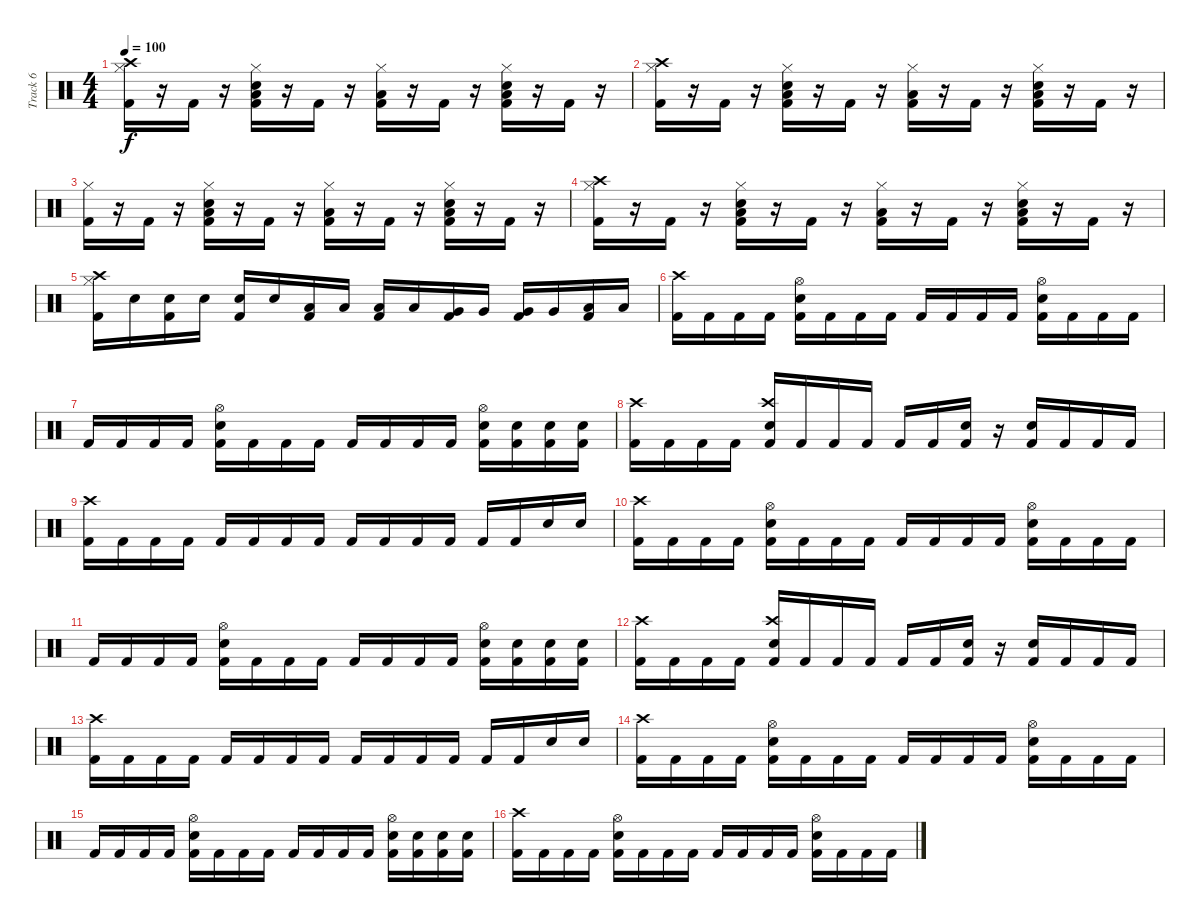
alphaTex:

\track ("Track 6" "Track 6") {instrument percussion}
\staff {score}
\articulation defaults
\ts (4 4)
\tempo 100
\clef neutral
\ks c
("Hi-Hat (closed)" "Kick (hit) 2" "Crash high (hit)").16{dy f} r.16 "Kick (hit) 2".16 r.16 ("Hi-Hat (closed)" "Kick (hit) 2" "Low Floor Tom (hit)" "Snare (hit) 2").16 r.16 "Kick (hit) 2".16 r.16 ("Hi-Hat (closed)" "Kick (hit) 2" "Low Floor Tom (hit)").16 r.16 "Kick (hit) 2".16 r.16 ("Hi-Hat (closed)" "Kick (hit) 2" "Low Floor Tom (hit)" "Snare (hit) 2").16 r.16 "Kick (hit) 2".16 r.16 |
("Hi-Hat (closed)" "Kick (hit) 2" "Crash high (hit)").16 r.16 "Kick (hit) 2".16 r.16 ("Hi-Hat (closed)" "Kick (hit) 2" "Low Floor Tom (hit)" "Snare (hit) 2").16 r.16 "Kick (hit) 2".16 r.16 ("Hi-Hat (closed)" "Kick (hit) 2" "Low Floor Tom (hit)").16 r.16 "Kick (hit) 2".16 r.16 ("Hi-Hat (closed)" "Kick (hit) 2" "Low Floor Tom (hit)" "Snare (hit) 2").16 r.16 "Kick (hit) 2".16 r.16 |
("Hi-Hat (closed)" "Kick (hit) 2").16 r.16 "Kick (hit) 2".16 r.16 ("Hi-Hat (closed)" "Kick (hit) 2" "Low Floor Tom (hit)" "Snare (hit) 2").16 r.16 "Kick (hit) 2".16 r.16 ("Hi-Hat (closed)" "Kick (hit) 2" "Low Floor Tom (hit)").16 r.16 "Kick (hit) 2".16 r.16 ("Hi-Hat (closed)" "Kick (hit) 2" "Low Floor Tom (hit)" "Snare (hit) 2").16 r.16 "Kick (hit) 2".16 r.16 |
("Hi-Hat (closed)" "Kick (hit) 2" "Crash high (hit)").16 r.16 "Kick (hit) 2".16 r.16 ("Hi-Hat (closed)" "Kick (hit) 2" "Low Floor Tom (hit)" "Snare (hit) 2").16 r.16 "Kick (hit) 2".16 r.16 ("Hi-Hat (closed)" "Kick (hit) 2" "Low Floor Tom (hit)").16 r.16 "Kick (hit) 2".16 r.16 ("Hi-Hat (closed)" "Kick (hit) 2" "Low Floor Tom (hit)" "Snare (hit) 2").16 r.16 "Kick (hit) 2".16 r.16 |
("Hi-Hat (closed)" "Kick (hit) 2" "Crash high (hit)").16 "Electric Snare (hit)".16 ("Kick (hit) 2" "Electric Snare (hit)").16 "Electric Snare (hit)".16 ("Electric Snare (hit)" "Kick (hit) 2").16 "Electric Snare (hit)".16 ("Kick (hit) 2" "Low Floor Tom (hit)").16 "Low Floor Tom (hit)".16 ("Low Floor Tom (hit)" "Kick (hit) 2").16 "Low Floor Tom (hit)".16 ("Kick (hit) 2" "Very Low Tom (hit)").16 "Very Low Tom (hit)".16 ("Very Low Tom (hit)" "Kick (hit) 2").16 "Very Low Tom (hit)".16 ("Kick (hit) 2" "Low Tom (hit)").16 "Low Tom (hit)".16 |
("Kick (hit) 2" "Crash high (hit)").16 "Kick (hit) 2".16 "Kick (hit) 2".16 "Kick (hit) 2".16 ("Kick (hit) 2" "Snare (hit) 2" "Hi-Hat (open)").16 "Kick (hit) 2".16 "Kick (hit) 2".16 "Kick (hit) 2".16 "Kick (hit) 2".16 "Kick (hit) 2".16 "Kick (hit) 2".16 "Kick (hit) 2".16 ("Kick (hit) 2" "Snare (hit) 2" "Hi-Hat (open)").16 "Kick (hit) 2".16 "Kick (hit) 2".16 "Kick (hit) 2".16 |
"Kick (hit) 2".16 "Kick (hit) 2".16 "Kick (hit) 2".16 "Kick (hit) 2".16 ("Kick (hit) 2" "Snare (hit) 2" "Hi-Hat (open)").16 "Kick (hit) 2".16 "Kick (hit) 2".16 "Kick (hit) 2".16 "Kick (hit) 2".16 "Kick (hit) 2".16 "Kick (hit) 2".16 "Kick (hit) 2".16 ("Kick (hit) 2" "Snare (hit) 2" "Hi-Hat (open)").16 ("Kick (hit) 2" "Snare (hit) 2").16 ("Kick (hit) 2" "Snare (hit) 2").16 ("Kick (hit) 2" "Snare (hit) 2").16 |
("Kick (hit) 2" "Crash high (hit)").16 "Kick (hit) 2".16 "Kick (hit) 2".16 "Kick (hit) 2".16 ("Kick (hit) 2" "Crash high (hit)" "Snare (hit) 2").16 "Kick (hit) 2".16 "Kick (hit) 2".16 "Kick (hit) 2".16 "Kick (hit) 2".16 "Kick (hit) 2".16 ("Snare (hit) 2" "Kick (hit) 2").16 r.16 ("Snare (hit) 2" "Kick (hit) 2").16 "Kick (hit) 2".16 "Kick (hit) 2".16 "Kick (hit) 2".16 |
("Crash high (hit)" "Kick (hit) 2").16 "Kick (hit) 2".16 "Kick (hit) 2".16 "Kick (hit) 2".16 "Kick (hit) 2".16 "Kick (hit) 2".16 "Kick (hit) 2".16 "Kick (hit) 2".16 "Kick (hit) 2".16 "Kick (hit) 2".16 "Kick (hit) 2".16 "Kick (hit) 2".16 "Kick (hit) 2".16 "Kick (hit) 2".16 "Snare (hit) 2".16 "Snare (hit) 2".16 |
("Kick (hit) 2" "Crash high (hit)").16 "Kick (hit) 2".16 "Kick (hit) 2".16 "Kick (hit) 2".16 ("Kick (hit) 2" "Snare (hit) 2" "Hi-Hat (open)").16 "Kick (hit) 2".16 "Kick (hit) 2".16 "Kick (hit) 2".16 "Kick (hit) 2".16 "Kick (hit) 2".16 "Kick (hit) 2".16 "Kick (hit) 2".16 ("Kick (hit) 2" "Snare (hit) 2" "Hi-Hat (open)").16 "Kick (hit) 2".16 "Kick (hit) 2".16 "Kick (hit) 2".16 |
"Kick (hit) 2".16 "Kick (hit) 2".16 "Kick (hit) 2".16 "Kick (hit) 2".16 ("Kick (hit) 2" "Snare (hit) 2" "Hi-Hat (open)").16 "Kick (hit) 2".16 "Kick (hit) 2".16 "Kick (hit) 2".16 "Kick (hit) 2".16 "Kick (hit) 2".16 "Kick (hit) 2".16 "Kick (hit) 2".16 ("Kick (hit) 2" "Snare (hit) 2" "Hi-Hat (open)").16 ("Kick (hit) 2" "Snare (hit) 2").16 ("Kick (hit) 2" "Snare (hit) 2").16 ("Kick (hit) 2" "Snare (hit) 2").16 |
("Kick (hit) 2" "Crash high (hit)").16 "Kick (hit) 2".16 "Kick (hit) 2".16 "Kick (hit) 2".16 ("Kick (hit) 2" "Crash high (hit)" "Snare (hit) 2").16 "Kick (hit) 2".16 "Kick (hit) 2".16 "Kick (hit) 2".16 "Kick (hit) 2".16 "Kick (hit) 2".16 ("Snare (hit) 2" "Kick (hit) 2").16 r.16 ("Snare (hit) 2" "Kick (hit) 2").16 "Kick (hit) 2".16 "Kick (hit) 2".16 "Kick (hit) 2".16 |
("Crash high (hit)" "Kick (hit) 2").16 "Kick (hit) 2".16 "Kick (hit) 2".16 "Kick (hit) 2".16 "Kick (hit) 2".16 "Kick (hit) 2".16 "Kick (hit) 2".16 "Kick (hit) 2".16 "Kick (hit) 2".16 "Kick (hit) 2".16 "Kick (hit) 2".16 "Kick (hit) 2".16 "Kick (hit) 2".16 "Kick (hit) 2".16 "Snare (hit) 2".16 "Snare (hit) 2".16 |
("Kick (hit) 2" "Crash high (hit)").16 "Kick (hit) 2".16 "Kick (hit) 2".16 "Kick (hit) 2".16 ("Kick (hit) 2" "Snare (hit) 2" "Hi-Hat (open)").16 "Kick (hit) 2".16 "Kick (hit) 2".16 "Kick (hit) 2".16 "Kick (hit) 2".16 "Kick (hit) 2".16 "Kick (hit) 2".16 "Kick (hit) 2".16 ("Kick (hit) 2" "Snare (hit) 2" "Hi-Hat (open)").16 "Kick (hit) 2".16 "Kick (hit) 2".16 "Kick (hit) 2".16 |
"Kick (hit) 2".16 "Kick (hit) 2".16 "Kick (hit) 2".16 "Kick (hit) 2".16 ("Kick (hit) 2" "Snare (hit) 2" "Hi-Hat (open)").16 "Kick (hit) 2".16 "Kick (hit) 2".16 "Kick (hit) 2".16 "Kick (hit) 2".16 "Kick (hit) 2".16 "Kick (hit) 2".16 "Kick (hit) 2".16 ("Kick (hit) 2" "Snare (hit) 2" "Hi-Hat (open)").16 ("Kick (hit) 2" "Snare (hit) 2").16 ("Kick (hit) 2" "Snare (hit) 2").16 ("Kick (hit) 2" "Snare (hit) 2").16 |
("Kick (hit) 2" "Crash high (hit)").16 "Kick (hit) 2".16 "Kick (hit) 2".16 "Kick (hit) 2".16 ("Kick (hit) 2" "Snare (hit) 2" "Hi-Hat (open)").16 "Kick (hit) 2".16 "Kick (hit) 2".16 "Kick (hit) 2".16 "Kick (hit) 2".16 "Kick (hit) 2".16 "Kick (hit) 2".16 "Kick (hit) 2".16 ("Kick (hit) 2" "Snare (hit) 2" "Hi-Hat (open)").16 "Kick (hit) 2".16 "Kick (hit) 2".16 "Kick (hit) 2".16
